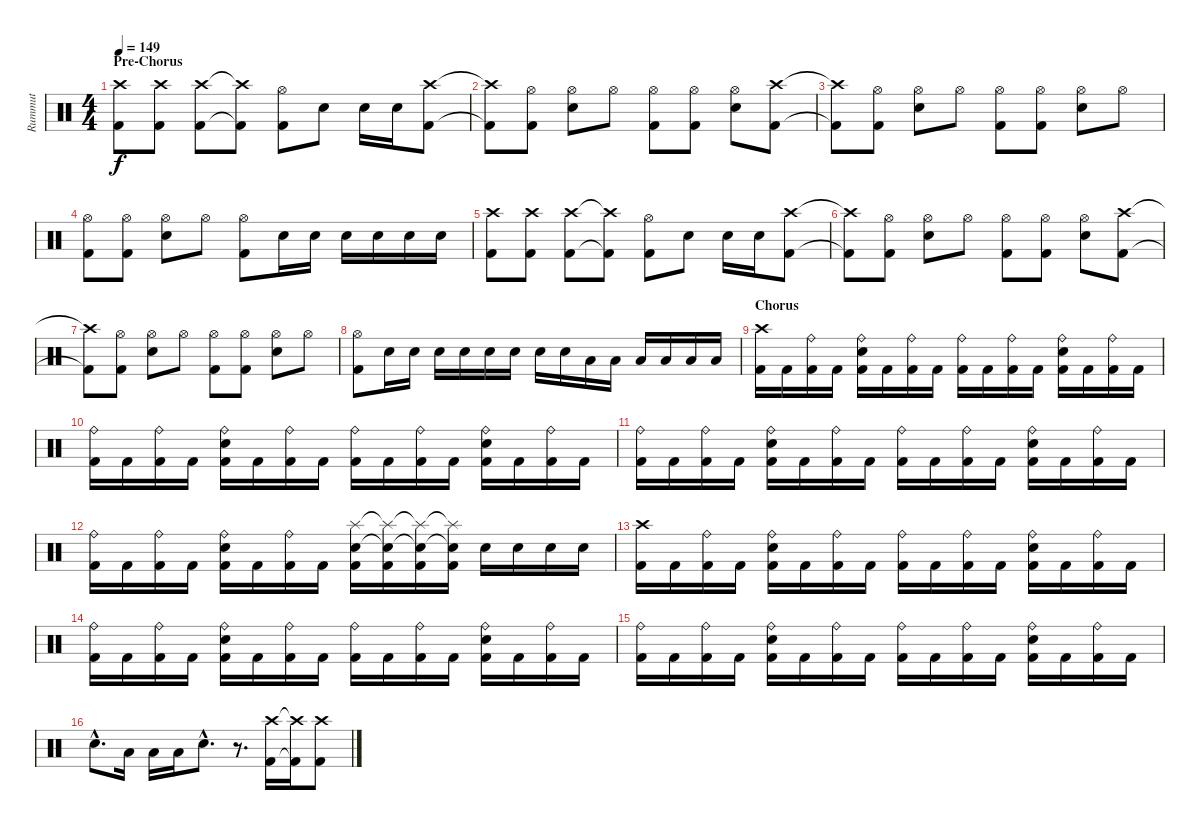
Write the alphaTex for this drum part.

\track ("Rummut" "Rummut") {instrument percussion}
\staff {score}
\articulation defaults
\ts (4 4)
\section ("" "Pre-Chorus")
\tempo 149
\clef neutral
\ks c
("Crash high (hit)" "Kick (hit) 2").8{dy f} ("Crash high (hit)" "Kick (hit) 2").8 ("Crash high (hit)" "Kick (hit) 2").8 ("Crash high (hit)"{t} "Kick (hit) 2"{t}).8 ("Hi-Hat (open)" "Kick (hit) 2").8 "Electric Snare (hit)".8 "Electric Snare (hit)".16 "Electric Snare (hit)".16 ("Crash high (hit)" "Kick (hit) 2").8 |
("Crash high (hit)"{t} "Kick (hit) 2"{t}).8 ("Hi-Hat (open)" "Kick (hit) 2").8 ("Hi-Hat (open)" "Electric Snare (hit)").8 "Hi-Hat (open)".8 ("Hi-Hat (open)" "Kick (hit) 2").8 ("Hi-Hat (open)" "Kick (hit) 2").8 ("Hi-Hat (open)" "Electric Snare (hit)").8 ("Crash high (hit)" "Kick (hit) 2").8 |
("Crash high (hit)"{t} "Kick (hit) 2"{t}).8 ("Hi-Hat (open)" "Kick (hit) 2").8 ("Hi-Hat (open)" "Electric Snare (hit)").8 "Hi-Hat (open)".8 ("Hi-Hat (open)" "Kick (hit) 2").8 ("Hi-Hat (open)" "Kick (hit) 2").8 ("Hi-Hat (open)" "Electric Snare (hit)").8 "Hi-Hat (open)".8 |
("Hi-Hat (open)" "Kick (hit) 2").8 ("Hi-Hat (open)" "Kick (hit) 2").8 ("Hi-Hat (open)" "Electric Snare (hit)").8 "Hi-Hat (open)".8 ("Hi-Hat (open)" "Kick (hit) 2").8 "Electric Snare (hit)".16 "Electric Snare (hit)".16 "Electric Snare (hit)".16 "Electric Snare (hit)".16 "Electric Snare (hit)".16 "Electric Snare (hit)".16 |
("Crash high (hit)" "Kick (hit) 2").8 ("Crash high (hit)" "Kick (hit) 2").8 ("Crash high (hit)" "Kick (hit) 2").8 ("Crash high (hit)"{t} "Kick (hit) 2"{t}).8 ("Hi-Hat (open)" "Kick (hit) 2").8 "Electric Snare (hit)".8 "Electric Snare (hit)".16 "Electric Snare (hit)".16 ("Crash high (hit)" "Kick (hit) 2").8 |
("Crash high (hit)"{t} "Kick (hit) 2"{t}).8 ("Hi-Hat (open)" "Kick (hit) 2").8 ("Hi-Hat (open)" "Electric Snare (hit)").8 "Hi-Hat (open)".8 ("Hi-Hat (open)" "Kick (hit) 2").8 ("Hi-Hat (open)" "Kick (hit) 2").8 ("Hi-Hat (open)" "Electric Snare (hit)").8 ("Crash high (hit)" "Kick (hit) 2").8 |
("Crash high (hit)"{t} "Kick (hit) 2"{t}).8 ("Hi-Hat (open)" "Kick (hit) 2").8 ("Hi-Hat (open)" "Electric Snare (hit)").8 "Hi-Hat (open)".8 ("Hi-Hat (open)" "Kick (hit) 2").8 ("Hi-Hat (open)" "Kick (hit) 2").8 ("Hi-Hat (open)" "Electric Snare (hit)").8 "Hi-Hat (open)".8 |
("Hi-Hat (open)" "Kick (hit) 2").8 "Electric Snare (hit)".16 "Electric Snare (hit)".16 "Electric Snare (hit)".16 "Electric Snare (hit)".16 "Electric Snare (hit)".16 "Electric Snare (hit)".16 "Electric Snare (hit)".16 "Electric Snare (hit)".16 "Low Tom (hit)".16 "Low Tom (hit)".16 "Low Floor Tom (hit)".16 "Low Floor Tom (hit)".16 "Low Floor Tom (hit)".16 "Low Floor Tom (hit)".16 |
\section ("" "Chorus")
("Crash high (hit)" "Kick (hit) 2").16 "Kick (hit) 2".16 ("Ride (bell)" "Kick (hit) 2").16 "Kick (hit) 2".16 ("Ride (bell)" "Electric Snare (hit)" "Kick (hit) 2").16 "Kick (hit) 2".16 ("Ride (bell)" "Kick (hit) 2").16 "Kick (hit) 2".16 ("Ride (bell)" "Kick (hit) 2").16 "Kick (hit) 2".16 ("Ride (bell)" "Kick (hit) 2").16 "Kick (hit) 2".16 ("Ride (bell)" "Electric Snare (hit)" "Kick (hit) 2").16 "Kick (hit) 2".16 ("Ride (bell)" "Kick (hit) 2").16 "Kick (hit) 2".16 |
("Ride (bell)" "Kick (hit) 2").16 "Kick (hit) 2".16 ("Ride (bell)" "Kick (hit) 2").16 "Kick (hit) 2".16 ("Ride (bell)" "Electric Snare (hit)" "Kick (hit) 2").16 "Kick (hit) 2".16 ("Ride (bell)" "Kick (hit) 2").16 "Kick (hit) 2".16 ("Ride (bell)" "Kick (hit) 2").16 "Kick (hit) 2".16 ("Ride (bell)" "Kick (hit) 2").16 "Kick (hit) 2".16 ("Ride (bell)" "Electric Snare (hit)" "Kick (hit) 2").16 "Kick (hit) 2".16 ("Ride (bell)" "Kick (hit) 2").16 "Kick (hit) 2".16 |
("Ride (bell)" "Kick (hit) 2").16 "Kick (hit) 2".16 ("Ride (bell)" "Kick (hit) 2").16 "Kick (hit) 2".16 ("Ride (bell)" "Electric Snare (hit)" "Kick (hit) 2").16 "Kick (hit) 2".16 ("Ride (bell)" "Kick (hit) 2").16 "Kick (hit) 2".16 ("Ride (bell)" "Kick (hit) 2").16 "Kick (hit) 2".16 ("Ride (bell)" "Kick (hit) 2").16 "Kick (hit) 2".16 ("Ride (bell)" "Electric Snare (hit)" "Kick (hit) 2").16 "Kick (hit) 2".16 ("Ride (bell)" "Kick (hit) 2").16 "Kick (hit) 2".16 |
("Ride (bell)" "Kick (hit) 2").16 "Kick (hit) 2".16 ("Ride (bell)" "Kick (hit) 2").16 "Kick (hit) 2".16 ("Ride (bell)" "Electric Snare (hit)" "Kick (hit) 2").16 "Kick (hit) 2".16 ("Ride (bell)" "Kick (hit) 2").16 "Kick (hit) 2".16 ("Splash (hit)" "Electric Snare (hit)" "Kick (hit) 2").16 ("Splash (hit)"{t} "Electric Snare (hit)"{t} "Kick (hit) 2").16 ("Splash (hit)"{t} "Electric Snare (hit)"{t} "Kick (hit) 2").16 ("Splash (hit)"{t} "Electric Snare (hit)"{t} "Kick (hit) 2").16 "Electric Snare (hit)".16 "Electric Snare (hit)".16 "Electric Snare (hit)".16 "Electric Snare (hit)".16 |
("Crash high (hit)" "Kick (hit) 2").16 "Kick (hit) 2".16 ("Ride (bell)" "Kick (hit) 2").16 "Kick (hit) 2".16 ("Ride (bell)" "Electric Snare (hit)" "Kick (hit) 2").16 "Kick (hit) 2".16 ("Ride (bell)" "Kick (hit) 2").16 "Kick (hit) 2".16 ("Ride (bell)" "Kick (hit) 2").16 "Kick (hit) 2".16 ("Ride (bell)" "Kick (hit) 2").16 "Kick (hit) 2".16 ("Ride (bell)" "Electric Snare (hit)" "Kick (hit) 2").16 "Kick (hit) 2".16 ("Ride (bell)" "Kick (hit) 2").16 "Kick (hit) 2".16 |
("Ride (bell)" "Kick (hit) 2").16 "Kick (hit) 2".16 ("Ride (bell)" "Kick (hit) 2").16 "Kick (hit) 2".16 ("Ride (bell)" "Electric Snare (hit)" "Kick (hit) 2").16 "Kick (hit) 2".16 ("Ride (bell)" "Kick (hit) 2").16 "Kick (hit) 2".16 ("Ride (bell)" "Kick (hit) 2").16 "Kick (hit) 2".16 ("Ride (bell)" "Kick (hit) 2").16 "Kick (hit) 2".16 ("Ride (bell)" "Electric Snare (hit)" "Kick (hit) 2").16 "Kick (hit) 2".16 ("Ride (bell)" "Kick (hit) 2").16 "Kick (hit) 2".16 |
("Ride (bell)" "Kick (hit) 2").16 "Kick (hit) 2".16 ("Ride (bell)" "Kick (hit) 2").16 "Kick (hit) 2".16 ("Ride (bell)" "Electric Snare (hit)" "Kick (hit) 2").16 "Kick (hit) 2".16 ("Ride (bell)" "Kick (hit) 2").16 "Kick (hit) 2".16 ("Ride (bell)" "Kick (hit) 2").16 "Kick (hit) 2".16 ("Ride (bell)" "Kick (hit) 2").16 "Kick (hit) 2".16 ("Ride (bell)" "Electric Snare (hit)" "Kick (hit) 2").16 "Kick (hit) 2".16 ("Ride (bell)" "Kick (hit) 2").16 "Kick (hit) 2".16 |
"Electric Snare (hit)"{hac}.8{d} "Low Tom (hit)".16 "Low Floor Tom (hit)".16 "Low Floor Tom (hit)".16 "Electric Snare (hit)"{hac}.8{d} r.8{d} ("Crash high (hit)" "Kick (hit) 2").16 ("Crash high (hit)"{t} "Kick (hit) 2"{t}).16 ("Crash high (hit)" "Kick (hit) 2").8
